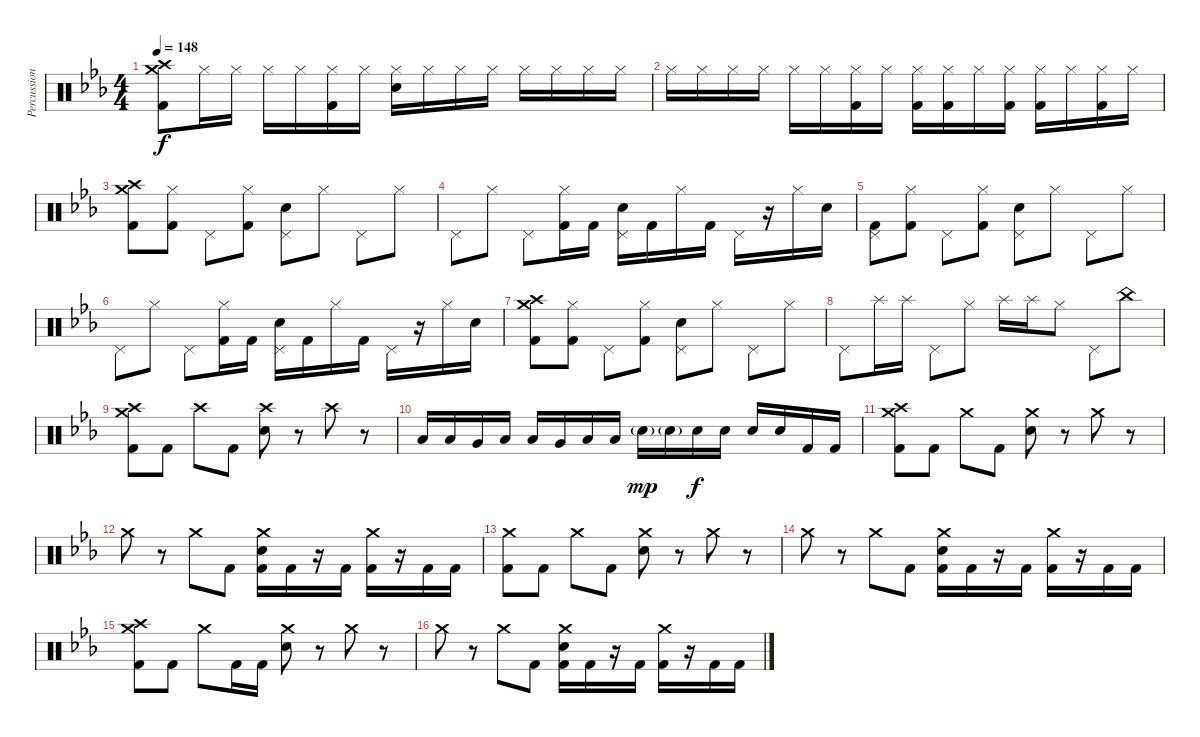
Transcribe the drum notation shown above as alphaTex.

\track ("Percussion" "Percussion") {instrument percussion}
\staff {score}
\articulation defaults
\ts (4 4)
\tempo 148
\clef neutral
\ks cminor
("Crash medium (hit)" "Crash high (hit)" "Kick (hit) 2").8{dy f} "Hi-Hat (closed)".16 "Hi-Hat (closed)".16 "Hi-Hat (closed)".16 "Hi-Hat (closed)".16 ("Hi-Hat (closed)" "Kick (hit) 2").16 "Hi-Hat (closed)".16 ("Hi-Hat (closed)" "Electric Snare (hit)").16 "Hi-Hat (closed)".16 "Hi-Hat (closed)".16 "Hi-Hat (closed)".16 "Hi-Hat (closed)".16 "Hi-Hat (closed)".16 "Hi-Hat (closed)".16 "Hi-Hat (closed)".16 |
"Hi-Hat (closed)".16 "Hi-Hat (closed)".16 "Hi-Hat (closed)".16 "Hi-Hat (closed)".16 "Hi-Hat (closed)".16 "Hi-Hat (closed)".16 ("Hi-Hat (closed)" "Kick (hit) 2").16 "Hi-Hat (closed)".16 ("Hi-Hat (closed)" "Kick (hit) 2").16 ("Hi-Hat (closed)" "Kick (hit) 2").16 "Hi-Hat (closed)".16 ("Hi-Hat (closed)" "Kick (hit) 2").16 ("Hi-Hat (closed)" "Kick (hit) 2").16 "Hi-Hat (closed)".16 ("Hi-Hat (closed)" "Kick (hit) 2").16 "Hi-Hat (closed)".16 |
("Crash medium (hit)" "Crash high (hit)" "Kick (hit) 2").8 ("Hi-Hat (closed)" "Kick (hit) 2").8 "Pedal Hi-Hat (hit)".8 ("Hi-Hat (closed)" "Kick (hit) 2").8 ("Pedal Hi-Hat (hit)" "Electric Snare (hit)").8 "Hi-Hat (closed)".8 "Pedal Hi-Hat (hit)".8 "Hi-Hat (closed)".8 |
"Pedal Hi-Hat (hit)".8 "Hi-Hat (closed)".8 "Pedal Hi-Hat (hit)".8 ("Hi-Hat (closed)" "Kick (hit) 2").16 "Kick (hit) 2".16 ("Pedal Hi-Hat (hit)" "Electric Snare (hit)").16 "Kick (hit) 2".16 "Hi-Hat (closed)".16 "Kick (hit) 2".16 "Pedal Hi-Hat (hit)".16 r.16 "Hi-Hat (closed)".16 "Electric Snare (hit)".16 |
("Pedal Hi-Hat (hit)" "Kick (hit) 2").8 ("Hi-Hat (closed)" "Kick (hit) 2").8 "Pedal Hi-Hat (hit)".8 ("Hi-Hat (closed)" "Kick (hit) 2").8 ("Pedal Hi-Hat (hit)" "Electric Snare (hit)").8 "Hi-Hat (closed)".8 "Pedal Hi-Hat (hit)".8 "Hi-Hat (closed)".8 |
"Pedal Hi-Hat (hit)".8 "Hi-Hat (closed)".8 "Pedal Hi-Hat (hit)".8 ("Hi-Hat (closed)" "Kick (hit) 2").16 "Kick (hit) 2".16 ("Pedal Hi-Hat (hit)" "Electric Snare (hit)").16 "Kick (hit) 2".16 "Hi-Hat (closed)".16 "Kick (hit) 2".16 "Pedal Hi-Hat (hit)".16 r.16 "Hi-Hat (closed)".16 "Electric Snare (hit)".16 |
("Crash medium (hit)" "Crash high (hit)" "Kick (hit) 2").8 ("Hi-Hat (closed)" "Kick (hit) 2").8 "Pedal Hi-Hat (hit)".8 ("Hi-Hat (closed)" "Kick (hit) 2").8 ("Pedal Hi-Hat (hit)" "Electric Snare (hit)").8 "Hi-Hat (closed)".8 "Pedal Hi-Hat (hit)".8 "Hi-Hat (closed)".8 |
"Pedal Hi-Hat (hit)".8 "Splash (hit)".16 "Splash (hit)".16 "Pedal Hi-Hat (hit)".8 "Hi-Hat (closed)".8 "Splash (hit)".16 "Splash (hit)".16 "Hi-Hat (closed)".8 "Pedal Hi-Hat (hit)".8 "China (hit)".8 |
("Crash medium (hit)" "Crash high (hit)" "Kick (hit) 2").8 "Kick (hit) 2".8 "Crash high (hit)".8 "Kick (hit) 2".8 ("Crash high (hit)" "Electric Snare (hit)").8 r.8 "Crash high (hit)".8 r.8 |
"Low Tom (hit)".16 "Low Tom (hit)".16 "Very Low Tom (hit)".16 "Low Tom (hit)".16 "Low Tom (hit)".16 "Very Low Tom (hit)".16 "Low Tom (hit)".16 "Low Tom (hit)".16 "Electric Snare (hit)"{g}.16{dy mp} "Electric Snare (hit)"{g}.16 "Electric Snare (hit)".16{dy f} "Electric Snare (hit)".16 "Electric Snare (hit)".16 "Electric Snare (hit)".16 "Kick (hit) 2".16 "Kick (hit) 2".16 |
("Crash medium (hit)" "Crash high (hit)" "Kick (hit) 2").8 "Kick (hit) 2".8 "Crash medium (hit)".8 "Kick (hit) 2".8 ("Crash medium (hit)" "Electric Snare (hit)").8 r.8 "Crash medium (hit)".8 r.8 |
"Crash medium (hit)".8 r.8 "Crash medium (hit)".8 "Kick (hit) 2".8 ("Crash medium (hit)" "Electric Snare (hit)" "Kick (hit) 2").16 "Kick (hit) 2".16 r.16 "Kick (hit) 2".16 ("Crash medium (hit)" "Kick (hit) 2").16 r.16 "Kick (hit) 2".16 "Kick (hit) 2".16 |
("Crash medium (hit)" "Kick (hit) 2").8 "Kick (hit) 2".8 "Crash medium (hit)".8 "Kick (hit) 2".8 ("Crash medium (hit)" "Electric Snare (hit)").8 r.8 "Crash medium (hit)".8 r.8 |
"Crash medium (hit)".8 r.8 "Crash medium (hit)".8 "Kick (hit) 2".8 ("Crash medium (hit)" "Electric Snare (hit)" "Kick (hit) 2").16 "Kick (hit) 2".16 r.16 "Kick (hit) 2".16 ("Crash medium (hit)" "Kick (hit) 2").16 r.16 "Kick (hit) 2".16 "Kick (hit) 2".16 |
("Crash medium (hit)" "Crash high (hit)" "Kick (hit) 2").8 "Kick (hit) 2".8 "Crash medium (hit)".8 "Kick (hit) 2".16 "Kick (hit) 2".16 ("Crash medium (hit)" "Electric Snare (hit)").8 r.8 "Crash medium (hit)".8 r.8 |
"Crash medium (hit)".8 r.8 "Crash medium (hit)".8 "Kick (hit) 2".8 ("Crash medium (hit)" "Electric Snare (hit)" "Kick (hit) 2").16 "Kick (hit) 2".16 r.16 "Kick (hit) 2".16 ("Crash medium (hit)" "Kick (hit) 2").16 r.16 "Kick (hit) 2".16 "Kick (hit) 2".16
